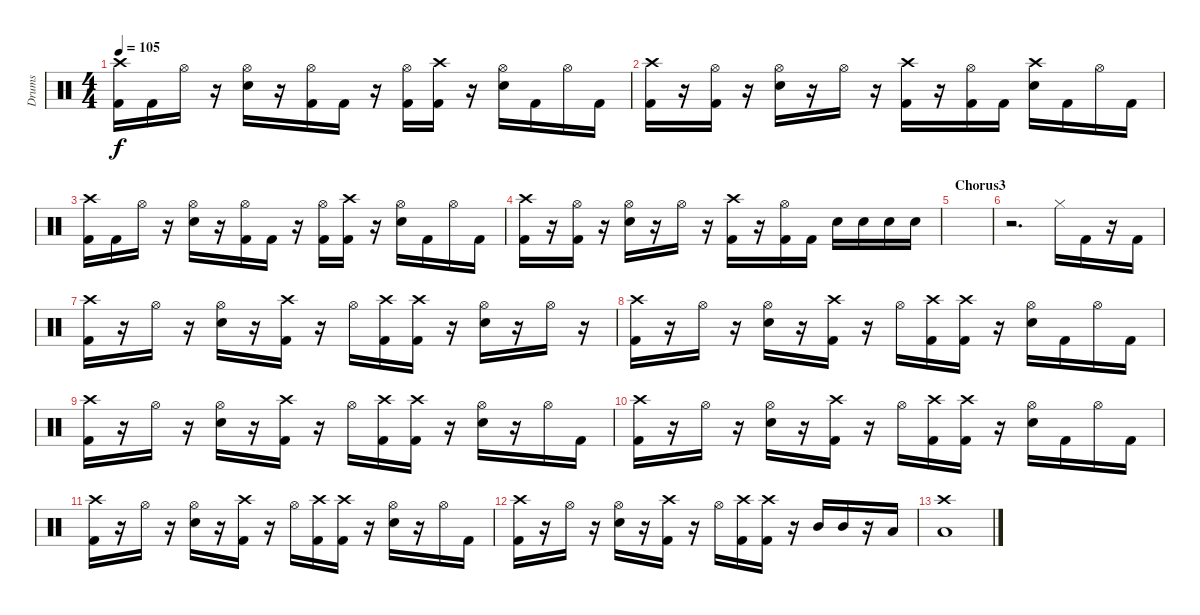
\track ("Drums" "Drums") {instrument percussion}
\staff {score}
\articulation defaults
\ts (4 4)
\tempo 105
\clef neutral
\ks c
("Crash high (hit)" "Kick (hit) 2").16{dy f} "Kick (hit) 2".16 "Hi-Hat (open)".16 r.16 ("Hi-Hat (open)" "Electric Snare (hit)").16 r.16 ("Hi-Hat (open)" "Kick (hit) 2").16 "Kick (hit) 2".16 r.16 ("Hi-Hat (open)" "Kick (hit) 2").16 ("Crash high (hit)" "Kick (hit) 2").16 r.16 ("Hi-Hat (open)" "Electric Snare (hit)").16 "Kick (hit) 2".16 "Hi-Hat (open)".16 "Kick (hit) 2".16 |
("Crash high (hit)" "Kick (hit) 2").16 r.16 ("Hi-Hat (open)" "Kick (hit) 2").16 r.16 ("Hi-Hat (open)" "Electric Snare (hit)").16 r.16 "Hi-Hat (open)".16 r.16 ("Crash high (hit)" "Kick (hit) 2").16 r.16 ("Hi-Hat (open)" "Kick (hit) 2").16 "Kick (hit) 2".16 ("Crash high (hit)" "Electric Snare (hit)").16 "Kick (hit) 2".16 "Hi-Hat (open)".16 "Kick (hit) 2".16 |
("Crash high (hit)" "Kick (hit) 2").16 "Kick (hit) 2".16 "Hi-Hat (open)".16 r.16 ("Hi-Hat (open)" "Electric Snare (hit)").16 r.16 ("Hi-Hat (open)" "Kick (hit) 2").16 "Kick (hit) 2".16 r.16 ("Hi-Hat (open)" "Kick (hit) 2").16 ("Crash high (hit)" "Kick (hit) 2").16 r.16 ("Hi-Hat (open)" "Electric Snare (hit)").16 "Kick (hit) 2".16 "Hi-Hat (open)".16 "Kick (hit) 2".16 |
("Crash high (hit)" "Kick (hit) 2").16 r.16 ("Hi-Hat (open)" "Kick (hit) 2").16 r.16 ("Hi-Hat (open)" "Electric Snare (hit)").16 r.16 "Hi-Hat (open)".16 r.16 ("Crash high (hit)" "Kick (hit) 2").16 r.16 ("Hi-Hat (open)" "Kick (hit) 2").16 "Kick (hit) 2".16 "Electric Snare (hit)".16 "Electric Snare (hit)".16 "Electric Snare (hit)".16 "Electric Snare (hit)".16 |
\section ("" "Chorus3")
|
r.2{d} "Hi-Hat (closed)".16 "Kick (hit) 2".16 r.16 "Kick (hit) 2".16 |
("Crash high (hit)" "Kick (hit) 2").16 r.16 "Hi-Hat (open)".16 r.16 ("Hi-Hat (open)" "Electric Snare (hit)").16 r.16 ("Crash high (hit)" "Kick (hit) 2").16 r.16 "Hi-Hat (open)".16 ("Crash high (hit)" "Kick (hit) 2").16 ("Crash high (hit)" "Kick (hit) 2").16 r.16 ("Hi-Hat (open)" "Electric Snare (hit)").16 r.16 "Hi-Hat (open)".16 r.16 |
("Crash high (hit)" "Kick (hit) 2").16 r.16 "Hi-Hat (open)".16 r.16 ("Hi-Hat (open)" "Electric Snare (hit)").16 r.16 ("Crash high (hit)" "Kick (hit) 2").16 r.16 "Hi-Hat (open)".16 ("Crash high (hit)" "Kick (hit) 2").16 ("Crash high (hit)" "Kick (hit) 2").16 r.16 ("Hi-Hat (open)" "Electric Snare (hit)").16 "Kick (hit) 2".16 "Hi-Hat (open)".16 "Kick (hit) 2".16 |
("Crash high (hit)" "Kick (hit) 2").16 r.16 "Hi-Hat (open)".16 r.16 ("Hi-Hat (open)" "Electric Snare (hit)").16 r.16 ("Crash high (hit)" "Kick (hit) 2").16 r.16 "Hi-Hat (open)".16 ("Crash high (hit)" "Kick (hit) 2").16 ("Crash high (hit)" "Kick (hit) 2").16 r.16 ("Hi-Hat (open)" "Electric Snare (hit)").16 r.16 "Hi-Hat (open)".16 "Kick (hit) 2".16 |
("Crash high (hit)" "Kick (hit) 2").16 r.16 "Hi-Hat (open)".16 r.16 ("Hi-Hat (open)" "Electric Snare (hit)").16 r.16 ("Crash high (hit)" "Kick (hit) 2").16 r.16 "Hi-Hat (open)".16 ("Crash high (hit)" "Kick (hit) 2").16 ("Crash high (hit)" "Kick (hit) 2").16 r.16 ("Hi-Hat (open)" "Electric Snare (hit)").16 "Kick (hit) 2".16 "Hi-Hat (open)".16 "Kick (hit) 2".16 |
("Crash high (hit)" "Kick (hit) 2").16 r.16 "Hi-Hat (open)".16 r.16 ("Hi-Hat (open)" "Electric Snare (hit)").16 r.16 ("Crash high (hit)" "Kick (hit) 2").16 r.16 "Hi-Hat (open)".16 ("Crash high (hit)" "Kick (hit) 2").16 ("Crash high (hit)" "Kick (hit) 2").16 r.16 ("Hi-Hat (open)" "Electric Snare (hit)").16 r.16 "Hi-Hat (open)".16 "Kick (hit) 2".16 |
("Crash high (hit)" "Kick (hit) 2").16 r.16 "Hi-Hat (open)".16 r.16 ("Hi-Hat (open)" "Electric Snare (hit)").16 r.16 ("Crash high (hit)" "Kick (hit) 2").16 r.16 "Hi-Hat (open)".16 ("Crash high (hit)" "Kick (hit) 2").16 ("Crash high (hit)" "Kick (hit) 2").16 r.16 "Mid Tom (hit)".16 "Mid Tom (hit)".16 r.16 "Low Tom (hit)".16 |
("Crash high (hit)" "Low Tom (hit)").1
